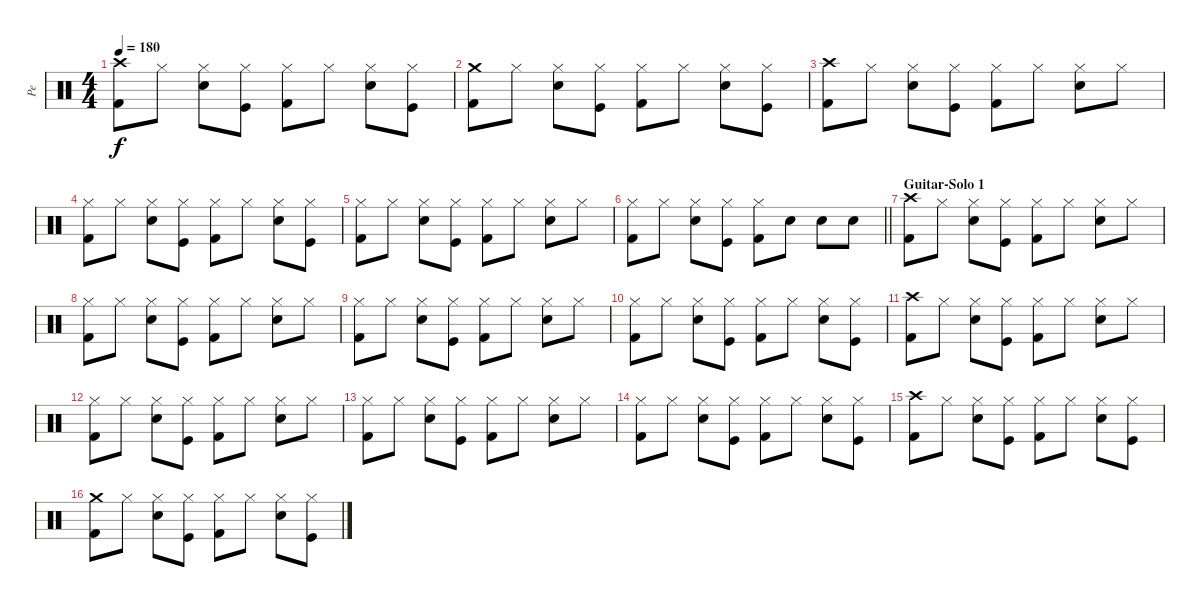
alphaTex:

\track ("Pe" "Pe") {instrument percussion}
\staff {score}
\articulation defaults
\ts (4 4)
\tempo 180
\clef neutral
\ks c
("Kick (hit) 2" "Crash high (hit)").8{dy f} "Hi-Hat (closed)".8 ("Electric Snare (hit)" "Hi-Hat (closed)").8 ("Kick (hit)" "Hi-Hat (closed)").8 ("Kick (hit) 2" "Hi-Hat (closed)").8 "Hi-Hat (closed)".8 ("Electric Snare (hit)" "Hi-Hat (closed)").8 ("Kick (hit)" "Hi-Hat (closed)").8 |
("Kick (hit) 2" "Crash medium (hit)").8 "Hi-Hat (closed)".8 ("Electric Snare (hit)" "Hi-Hat (closed)").8 ("Kick (hit)" "Hi-Hat (closed)").8 ("Kick (hit) 2" "Hi-Hat (closed)").8 "Hi-Hat (closed)".8 ("Electric Snare (hit)" "Hi-Hat (closed)").8 ("Kick (hit)" "Hi-Hat (closed)").8 |
("Kick (hit) 2" "Crash high (hit)").8 "Hi-Hat (closed)".8 ("Electric Snare (hit)" "Hi-Hat (closed)").8 ("Kick (hit)" "Hi-Hat (closed)").8 ("Kick (hit) 2" "Hi-Hat (closed)").8 "Hi-Hat (closed)".8 ("Electric Snare (hit)" "Hi-Hat (closed)").8 "Hi-Hat (closed)".8 |
("Kick (hit) 2" "Hi-Hat (closed)").8 "Hi-Hat (closed)".8 ("Electric Snare (hit)" "Hi-Hat (closed)").8 ("Kick (hit)" "Hi-Hat (closed)").8 ("Kick (hit) 2" "Hi-Hat (closed)").8 "Hi-Hat (closed)".8 ("Electric Snare (hit)" "Hi-Hat (closed)").8 ("Kick (hit)" "Hi-Hat (closed)").8 |
("Kick (hit) 2" "Hi-Hat (closed)").8 "Hi-Hat (closed)".8 ("Electric Snare (hit)" "Hi-Hat (closed)").8 ("Kick (hit)" "Hi-Hat (closed)").8 ("Kick (hit) 2" "Hi-Hat (closed)").8 "Hi-Hat (closed)".8 ("Electric Snare (hit)" "Hi-Hat (closed)").8 "Hi-Hat (closed)".8 |
\barLineRight lightlight
("Kick (hit) 2" "Hi-Hat (closed)").8 "Hi-Hat (closed)".8 ("Electric Snare (hit)" "Hi-Hat (closed)").8 ("Kick (hit)" "Hi-Hat (closed)").8 ("Kick (hit) 2" "Hi-Hat (closed)").8 "Electric Snare (hit)".8 "Electric Snare (hit)".8 "Electric Snare (hit)".8 |
\section ("" "Guitar-Solo 1")
("Kick (hit) 2" "Crash high (hit)").8 "Hi-Hat (closed)".8 ("Electric Snare (hit)" "Hi-Hat (closed)").8 ("Kick (hit)" "Hi-Hat (closed)").8 ("Kick (hit) 2" "Hi-Hat (closed)").8 "Hi-Hat (closed)".8 ("Electric Snare (hit)" "Hi-Hat (closed)").8 "Hi-Hat (closed)".8 |
("Kick (hit) 2" "Hi-Hat (closed)").8 "Hi-Hat (closed)".8 ("Electric Snare (hit)" "Hi-Hat (closed)").8 ("Kick (hit)" "Hi-Hat (closed)").8 ("Kick (hit) 2" "Hi-Hat (closed)").8 "Hi-Hat (closed)".8 ("Electric Snare (hit)" "Hi-Hat (closed)").8 "Hi-Hat (closed)".8 |
("Kick (hit) 2" "Hi-Hat (closed)").8 "Hi-Hat (closed)".8 ("Electric Snare (hit)" "Hi-Hat (closed)").8 ("Kick (hit)" "Hi-Hat (closed)").8 ("Kick (hit) 2" "Hi-Hat (closed)").8 "Hi-Hat (closed)".8 ("Electric Snare (hit)" "Hi-Hat (closed)").8 "Hi-Hat (closed)".8 |
("Kick (hit) 2" "Hi-Hat (closed)").8 "Hi-Hat (closed)".8 ("Electric Snare (hit)" "Hi-Hat (closed)").8 ("Kick (hit)" "Hi-Hat (closed)").8 ("Kick (hit) 2" "Hi-Hat (closed)").8 "Hi-Hat (closed)".8 ("Electric Snare (hit)" "Hi-Hat (closed)").8 ("Kick (hit)" "Hi-Hat (closed)").8 |
("Kick (hit) 2" "Crash high (hit)").8 "Hi-Hat (closed)".8 ("Electric Snare (hit)" "Hi-Hat (closed)").8 ("Kick (hit)" "Hi-Hat (closed)").8 ("Kick (hit) 2" "Hi-Hat (closed)").8 "Hi-Hat (closed)".8 ("Electric Snare (hit)" "Hi-Hat (closed)").8 "Hi-Hat (closed)".8 |
("Kick (hit) 2" "Hi-Hat (closed)").8 "Hi-Hat (closed)".8 ("Electric Snare (hit)" "Hi-Hat (closed)").8 ("Kick (hit)" "Hi-Hat (closed)").8 ("Kick (hit) 2" "Hi-Hat (closed)").8 "Hi-Hat (closed)".8 ("Electric Snare (hit)" "Hi-Hat (closed)").8 "Hi-Hat (closed)".8 |
("Kick (hit) 2" "Hi-Hat (closed)").8 "Hi-Hat (closed)".8 ("Electric Snare (hit)" "Hi-Hat (closed)").8 ("Kick (hit)" "Hi-Hat (closed)").8 ("Kick (hit) 2" "Hi-Hat (closed)").8 "Hi-Hat (closed)".8 ("Electric Snare (hit)" "Hi-Hat (closed)").8 "Hi-Hat (closed)".8 |
("Kick (hit) 2" "Hi-Hat (closed)").8 "Hi-Hat (closed)".8 ("Electric Snare (hit)" "Hi-Hat (closed)").8 ("Kick (hit)" "Hi-Hat (closed)").8 ("Kick (hit) 2" "Hi-Hat (closed)").8 "Hi-Hat (closed)".8 ("Electric Snare (hit)" "Hi-Hat (closed)").8 ("Kick (hit)" "Hi-Hat (closed)").8 |
("Kick (hit) 2" "Crash high (hit)").8 "Hi-Hat (closed)".8 ("Electric Snare (hit)" "Hi-Hat (closed)").8 ("Kick (hit)" "Hi-Hat (closed)").8 ("Kick (hit) 2" "Hi-Hat (closed)").8 "Hi-Hat (closed)".8 ("Electric Snare (hit)" "Hi-Hat (closed)").8 ("Kick (hit)" "Hi-Hat (closed)").8 |
("Kick (hit) 2" "Crash medium (hit)").8 "Hi-Hat (closed)".8 ("Electric Snare (hit)" "Hi-Hat (closed)").8 ("Kick (hit)" "Hi-Hat (closed)").8 ("Kick (hit) 2" "Hi-Hat (closed)").8 "Hi-Hat (closed)".8 ("Electric Snare (hit)" "Hi-Hat (closed)").8 ("Kick (hit)" "Hi-Hat (closed)").8
